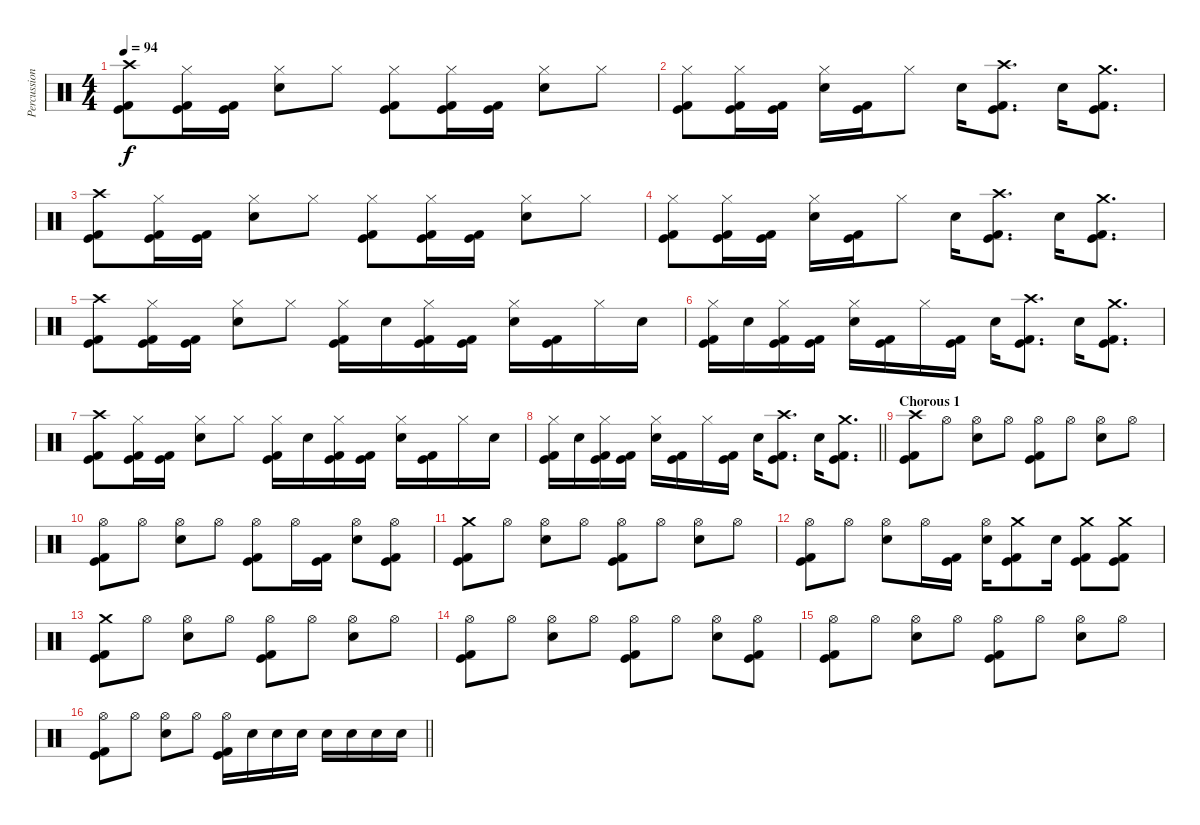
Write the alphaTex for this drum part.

\track ("Percussion" "Percussion") {instrument percussion}
\staff {score}
\articulation defaults
\ts (4 4)
\section ("" "")
\tempo 94
\clef neutral
\ks c
("Crash high (hit)" "Kick (hit)" "Kick (hit) 2").8{dy f} ("Hi-Hat (closed)" "Kick (hit)" "Kick (hit) 2").16 ("Kick (hit)" "Kick (hit) 2").16 ("Hi-Hat (closed)" "Electric Snare (hit)").8 "Hi-Hat (closed)".8 ("Hi-Hat (closed)" "Kick (hit)" "Kick (hit) 2").8 ("Hi-Hat (closed)" "Kick (hit)" "Kick (hit) 2").16 ("Kick (hit)" "Kick (hit) 2").16 ("Hi-Hat (closed)" "Electric Snare (hit)").8 "Hi-Hat (closed)".8 |
("Hi-Hat (closed)" "Kick (hit)" "Kick (hit) 2").8 ("Hi-Hat (closed)" "Kick (hit)" "Kick (hit) 2").16 ("Kick (hit)" "Kick (hit) 2").16 ("Hi-Hat (closed)" "Electric Snare (hit)").16 ("Kick (hit)" "Kick (hit) 2").16 "Hi-Hat (closed)".8 "Electric Snare (hit)".16 ("Crash high (hit)" "Kick (hit)" "Kick (hit) 2").8{d} "Electric Snare (hit)".16 ("Crash medium (hit)" "Kick (hit)" "Kick (hit) 2").8{d} |
("Crash high (hit)" "Kick (hit)" "Kick (hit) 2").8 ("Hi-Hat (closed)" "Kick (hit)" "Kick (hit) 2").16 ("Kick (hit)" "Kick (hit) 2").16 ("Hi-Hat (closed)" "Electric Snare (hit)").8 "Hi-Hat (closed)".8 ("Hi-Hat (closed)" "Kick (hit)" "Kick (hit) 2").8 ("Hi-Hat (closed)" "Kick (hit)" "Kick (hit) 2").16 ("Kick (hit)" "Kick (hit) 2").16 ("Hi-Hat (closed)" "Electric Snare (hit)").8 "Hi-Hat (closed)".8 |
("Hi-Hat (closed)" "Kick (hit)" "Kick (hit) 2").8 ("Hi-Hat (closed)" "Kick (hit)" "Kick (hit) 2").16 ("Kick (hit)" "Kick (hit) 2").16 ("Hi-Hat (closed)" "Electric Snare (hit)").16 ("Kick (hit)" "Kick (hit) 2").16 "Hi-Hat (closed)".8 "Electric Snare (hit)".16 ("Crash high (hit)" "Kick (hit)" "Kick (hit) 2").8{d} "Electric Snare (hit)".16 ("Crash medium (hit)" "Kick (hit)" "Kick (hit) 2").8{d} |
("Crash high (hit)" "Kick (hit)" "Kick (hit) 2").8 ("Hi-Hat (closed)" "Kick (hit)" "Kick (hit) 2").16 ("Kick (hit)" "Kick (hit) 2").16 ("Hi-Hat (closed)" "Electric Snare (hit)").8 "Hi-Hat (closed)".8 ("Hi-Hat (closed)" "Kick (hit)" "Kick (hit) 2").16 "Electric Snare (hit)".16 ("Hi-Hat (closed)" "Kick (hit)" "Kick (hit) 2").16 ("Kick (hit)" "Kick (hit) 2").16 ("Hi-Hat (closed)" "Electric Snare (hit)").16 ("Kick (hit)" "Kick (hit) 2").16 "Hi-Hat (closed)".16 "Electric Snare (hit)".16 |
("Hi-Hat (closed)" "Kick (hit)" "Kick (hit) 2").16 "Electric Snare (hit)".16 ("Hi-Hat (closed)" "Kick (hit)" "Kick (hit) 2").16 ("Kick (hit)" "Kick (hit) 2").16 ("Hi-Hat (closed)" "Electric Snare (hit)").16 ("Kick (hit)" "Kick (hit) 2").16 "Hi-Hat (closed)".16 ("Kick (hit)" "Kick (hit) 2").16 "Electric Snare (hit)".16 ("Crash high (hit)" "Kick (hit)" "Kick (hit) 2").8{d} "Electric Snare (hit)".16 ("Crash medium (hit)" "Kick (hit)" "Kick (hit) 2").8{d} |
("Crash high (hit)" "Kick (hit)" "Kick (hit) 2").8 ("Hi-Hat (closed)" "Kick (hit)" "Kick (hit) 2").16 ("Kick (hit)" "Kick (hit) 2").16 ("Hi-Hat (closed)" "Electric Snare (hit)").8 "Hi-Hat (closed)".8 ("Hi-Hat (closed)" "Kick (hit)" "Kick (hit) 2").16 "Electric Snare (hit)".16 ("Hi-Hat (closed)" "Kick (hit)" "Kick (hit) 2").16 ("Kick (hit)" "Kick (hit) 2").16 ("Hi-Hat (closed)" "Electric Snare (hit)").16 ("Kick (hit)" "Kick (hit) 2").16 "Hi-Hat (closed)".16 "Electric Snare (hit)".16 |
\barLineRight lightlight
("Hi-Hat (closed)" "Kick (hit)" "Kick (hit) 2").16 "Electric Snare (hit)".16 ("Hi-Hat (closed)" "Kick (hit)" "Kick (hit) 2").16 ("Kick (hit)" "Kick (hit) 2").16 ("Hi-Hat (closed)" "Electric Snare (hit)").16 ("Kick (hit)" "Kick (hit) 2").16 "Hi-Hat (closed)".16 ("Kick (hit)" "Kick (hit) 2").16 "Electric Snare (hit)".16 ("Crash high (hit)" "Kick (hit)" "Kick (hit) 2").8{d} "Electric Snare (hit)".16 ("Crash medium (hit)" "Kick (hit)" "Kick (hit) 2").8{d} |
\section ("" "Chorous 1")
("Crash high (hit)" "Kick (hit)" "Kick (hit) 2").8 "Hi-Hat (open)".8 ("Hi-Hat (open)" "Electric Snare (hit)").8 "Hi-Hat (open)".8 ("Hi-Hat (open)" "Kick (hit)" "Kick (hit) 2").8 "Hi-Hat (open)".8 ("Hi-Hat (open)" "Electric Snare (hit)").8 "Hi-Hat (open)".8 |
("Hi-Hat (open)" "Kick (hit)" "Kick (hit) 2").8 "Hi-Hat (open)".8 ("Hi-Hat (open)" "Electric Snare (hit)").8 "Hi-Hat (open)".8 ("Hi-Hat (open)" "Kick (hit)" "Kick (hit) 2").8 "Hi-Hat (open)".16 ("Kick (hit)" "Kick (hit) 2").16 ("Hi-Hat (open)" "Electric Snare (hit)").8 ("Hi-Hat (open)" "Kick (hit)" "Kick (hit) 2").8 |
("Crash medium (hit)" "Kick (hit)" "Kick (hit) 2").8 "Hi-Hat (open)".8 ("Hi-Hat (open)" "Electric Snare (hit)").8 "Hi-Hat (open)".8 ("Hi-Hat (open)" "Kick (hit)" "Kick (hit) 2").8 "Hi-Hat (open)".8 ("Hi-Hat (open)" "Electric Snare (hit)").8 "Hi-Hat (open)".8 |
("Hi-Hat (open)" "Kick (hit)" "Kick (hit) 2").8 "Hi-Hat (open)".8 ("Hi-Hat (open)" "Electric Snare (hit)").8 "Hi-Hat (open)".16 ("Kick (hit)" "Kick (hit) 2").16 ("Hi-Hat (open)" "Electric Snare (hit)").16 ("Crash medium (hit)" "Kick (hit)" "Kick (hit) 2").8 "Electric Snare (hit)".16 ("Crash medium (hit)" "Kick (hit)" "Kick (hit) 2").8 ("Crash medium (hit)" "Kick (hit)" "Kick (hit) 2").8 |
("Crash medium (hit)" "Kick (hit)" "Kick (hit) 2").8 "Hi-Hat (open)".8 ("Hi-Hat (open)" "Electric Snare (hit)").8 "Hi-Hat (open)".8 ("Hi-Hat (open)" "Kick (hit)" "Kick (hit) 2").8 "Hi-Hat (open)".8 ("Hi-Hat (open)" "Electric Snare (hit)").8 "Hi-Hat (open)".8 |
("Hi-Hat (open)" "Kick (hit)" "Kick (hit) 2").8 "Hi-Hat (open)".8 ("Hi-Hat (open)" "Electric Snare (hit)").8 "Hi-Hat (open)".8 ("Hi-Hat (open)" "Kick (hit)" "Kick (hit) 2").8 "Hi-Hat (open)".8 ("Hi-Hat (open)" "Electric Snare (hit)").8 ("Hi-Hat (open)" "Kick (hit)" "Kick (hit) 2").8 |
("Hi-Hat (open)" "Kick (hit)" "Kick (hit) 2").8 "Hi-Hat (open)".8 ("Hi-Hat (open)" "Electric Snare (hit)").8 "Hi-Hat (open)".8 ("Hi-Hat (open)" "Kick (hit)" "Kick (hit) 2").8 "Hi-Hat (open)".8 ("Hi-Hat (open)" "Electric Snare (hit)").8 "Hi-Hat (open)".8 |
\barLineRight lightlight
("Hi-Hat (open)" "Kick (hit)" "Kick (hit) 2").8 "Hi-Hat (open)".8 ("Hi-Hat (open)" "Electric Snare (hit)").8 "Hi-Hat (open)".8 ("Hi-Hat (open)" "Kick (hit)" "Kick (hit) 2").16 "Electric Snare (hit)".16 "Electric Snare (hit)".16 "Electric Snare (hit)".16 "Electric Snare (hit)".16 "Electric Snare (hit)".16 "Electric Snare (hit)".16 "Electric Snare (hit)".16
